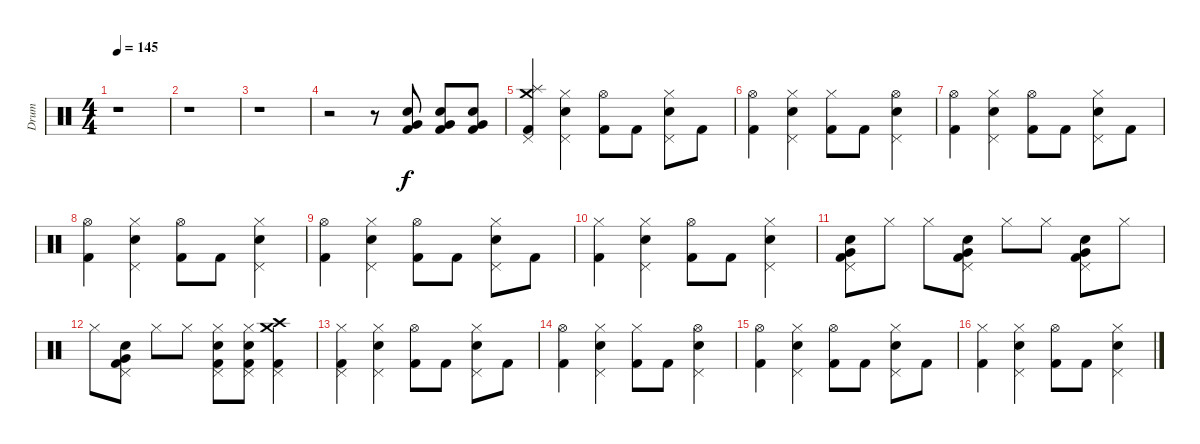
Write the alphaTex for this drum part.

\track ("Drum" "Drum") {instrument percussion}
\staff {score}
\articulation defaults
\ts (4 4)
\tempo 145
\clef neutral
\ks c
r.1{dy f} |
r.1 |
r.1 |
r.2 r.8 ("Very Low Tom (hit)" "Snare (hit) 2" "Kick (hit) 2").8 ("Very Low Tom (hit)" "Snare (hit) 2" "Kick (hit) 2").8 ("Very Low Tom (hit)" "Snare (hit) 2" "Kick (hit) 2").8 |
("Splash (hit)" "Crash medium (hit)" "Kick (hit) 2" "Pedal Hi-Hat (hit)").4 ("Hi-Hat (closed)" "Snare (hit) 2" "Pedal Hi-Hat (hit)").4 ("Hi-Hat (open)" "Kick (hit) 2").8 "Kick (hit) 2".8 ("Hi-Hat (closed)" "Snare (hit) 2" "Pedal Hi-Hat (hit)").8 "Kick (hit) 2".8 |
("Hi-Hat (open)" "Kick (hit) 2").4 ("Hi-Hat (closed)" "Snare (hit) 2" "Pedal Hi-Hat (hit)").4 ("Hi-Hat (closed)" "Kick (hit) 2").8 "Kick (hit) 2".8 ("Hi-Hat (open)" "Snare (hit) 2" "Pedal Hi-Hat (hit)").4 |
("Hi-Hat (open)" "Kick (hit) 2").4 ("Hi-Hat (closed)" "Snare (hit) 2" "Pedal Hi-Hat (hit)").4 ("Hi-Hat (open)" "Kick (hit) 2").8 "Kick (hit) 2".8 ("Hi-Hat (closed)" "Snare (hit) 2" "Pedal Hi-Hat (hit)").8 "Kick (hit) 2".8 |
("Hi-Hat (open)" "Kick (hit) 2").4 ("Hi-Hat (closed)" "Snare (hit) 2" "Pedal Hi-Hat (hit)").4 ("Hi-Hat (open)" "Kick (hit) 2").8 "Kick (hit) 2".8 ("Hi-Hat (closed)" "Snare (hit) 2" "Pedal Hi-Hat (hit)").4 |
("Hi-Hat (open)" "Kick (hit) 2").4 ("Hi-Hat (closed)" "Snare (hit) 2" "Pedal Hi-Hat (hit)").4 ("Hi-Hat (open)" "Kick (hit) 2").8 "Kick (hit) 2".8 ("Hi-Hat (closed)" "Snare (hit) 2" "Pedal Hi-Hat (hit)").8 "Kick (hit) 2".8 |
("Hi-Hat (closed)" "Kick (hit) 2").4 ("Hi-Hat (closed)" "Snare (hit) 2" "Pedal Hi-Hat (hit)").4 ("Hi-Hat (open)" "Kick (hit) 2").8 "Kick (hit) 2".8 ("Hi-Hat (closed)" "Snare (hit) 2" "Pedal Hi-Hat (hit)").4 |
("Very Low Tom (hit)" "Snare (hit) 2" "Kick (hit) 2" "Pedal Hi-Hat (hit)").8 "Hi-Hat (closed)".8 "Hi-Hat (closed)".8 ("Very Low Tom (hit)" "Snare (hit) 2" "Kick (hit) 2" "Pedal Hi-Hat (hit)").8 "Hi-Hat (closed)".8 "Hi-Hat (closed)".8 ("Very Low Tom (hit)" "Snare (hit) 2" "Kick (hit) 2" "Pedal Hi-Hat (hit)").8 "Hi-Hat (closed)".8 |
"Hi-Hat (closed)".8 ("Very Low Tom (hit)" "Snare (hit) 2" "Kick (hit) 2" "Pedal Hi-Hat (hit)").8 "Hi-Hat (closed)".8 "Hi-Hat (closed)".8 ("Hi-Hat (closed)" "Snare (hit) 2" "Kick (hit) 2" "Pedal Hi-Hat (hit)").8 ("Hi-Hat (closed)" "Snare (hit) 2" "Kick (hit) 2" "Pedal Hi-Hat (hit)").8 ("Crash medium (hit)" "Crash high (hit)" "Kick (hit) 2" "Pedal Hi-Hat (hit)").4 |
("Hi-Hat (closed)" "Kick (hit) 2" "Pedal Hi-Hat (hit)").4 ("Hi-Hat (closed)" "Snare (hit) 2" "Pedal Hi-Hat (hit)").4 ("Hi-Hat (open)" "Kick (hit) 2").8 "Kick (hit) 2".8 ("Hi-Hat (closed)" "Snare (hit) 2" "Pedal Hi-Hat (hit)").8 "Kick (hit) 2".8 |
("Hi-Hat (open)" "Kick (hit) 2").4 ("Hi-Hat (closed)" "Snare (hit) 2" "Pedal Hi-Hat (hit)").4 ("Hi-Hat (closed)" "Kick (hit) 2").8 "Kick (hit) 2".8 ("Hi-Hat (open)" "Snare (hit) 2" "Pedal Hi-Hat (hit)").4 |
("Hi-Hat (open)" "Kick (hit) 2").4 ("Hi-Hat (closed)" "Snare (hit) 2" "Pedal Hi-Hat (hit)").4 ("Hi-Hat (open)" "Kick (hit) 2").8 "Kick (hit) 2".8 ("Hi-Hat (closed)" "Snare (hit) 2" "Pedal Hi-Hat (hit)").8 "Kick (hit) 2".8 |
("Hi-Hat (closed)" "Kick (hit) 2").4 ("Hi-Hat (closed)" "Snare (hit) 2" "Pedal Hi-Hat (hit)").4 ("Hi-Hat (open)" "Kick (hit) 2").8 "Kick (hit) 2".8 ("Hi-Hat (closed)" "Snare (hit) 2" "Pedal Hi-Hat (hit)").4
